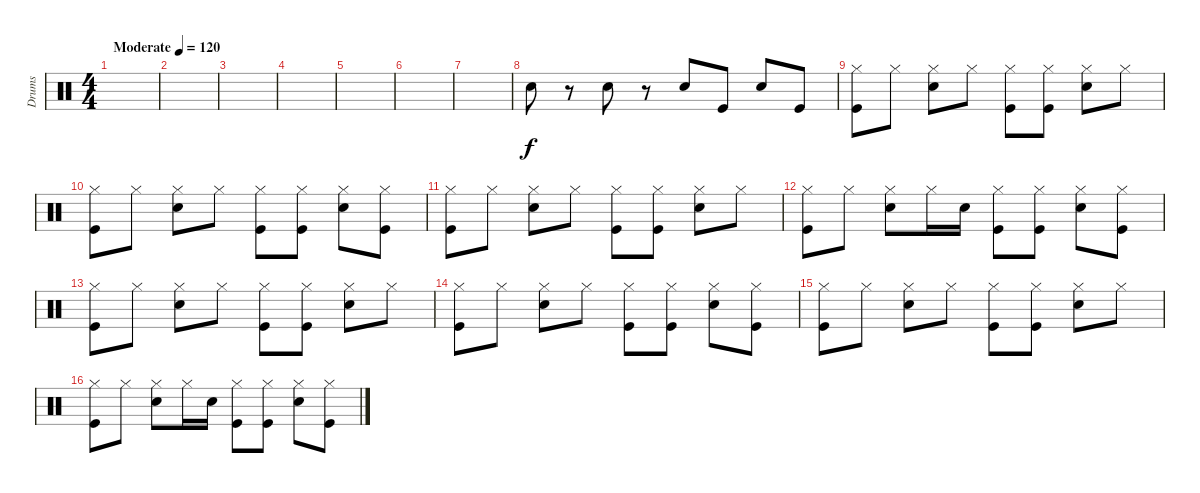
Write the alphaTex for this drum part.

\track ("Drums" "Drums") {instrument percussion}
\staff {score}
\articulation defaults
\ts (4 4)
\tempo (120 "Moderate")
\clef neutral
\ks c
|
|
|
|
|
|
|
"Snare (hit) 2".8 r.8 "Snare (hit) 2".8 r.8 "Snare (hit) 2".8 "Kick (hit)".8 "Snare (hit) 2".8 "Kick (hit)".8 |
("Hi-Hat (closed)" "Kick (hit)").8 "Hi-Hat (closed)".8 ("Hi-Hat (closed)" "Snare (hit) 2").8 "Hi-Hat (closed)".8 ("Hi-Hat (closed)" "Kick (hit)").8 ("Hi-Hat (closed)" "Kick (hit)").8 ("Hi-Hat (closed)" "Snare (hit) 2").8 "Hi-Hat (closed)".8 |
("Hi-Hat (closed)" "Kick (hit)").8 "Hi-Hat (closed)".8 ("Hi-Hat (closed)" "Snare (hit) 2").8 "Hi-Hat (closed)".8 ("Hi-Hat (closed)" "Kick (hit)").8 ("Hi-Hat (closed)" "Kick (hit)").8 ("Hi-Hat (closed)" "Snare (hit) 2").8 ("Hi-Hat (closed)" "Kick (hit)").8 |
("Hi-Hat (closed)" "Kick (hit)").8 "Hi-Hat (closed)".8 ("Hi-Hat (closed)" "Snare (hit) 2").8 "Hi-Hat (closed)".8 ("Hi-Hat (closed)" "Kick (hit)").8 ("Hi-Hat (closed)" "Kick (hit)").8 ("Hi-Hat (closed)" "Snare (hit) 2").8 "Hi-Hat (closed)".8 |
("Hi-Hat (closed)" "Kick (hit)").8 "Hi-Hat (closed)".8 ("Hi-Hat (closed)" "Snare (hit) 2").8 "Hi-Hat (closed)".16 "Snare (hit) 2".16 ("Hi-Hat (closed)" "Kick (hit)").8 ("Hi-Hat (closed)" "Kick (hit)").8 ("Hi-Hat (closed)" "Snare (hit) 2").8 ("Hi-Hat (closed)" "Kick (hit)").8 |
("Hi-Hat (closed)" "Kick (hit)").8 "Hi-Hat (closed)".8 ("Hi-Hat (closed)" "Snare (hit) 2").8 "Hi-Hat (closed)".8 ("Hi-Hat (closed)" "Kick (hit)").8 ("Hi-Hat (closed)" "Kick (hit)").8 ("Hi-Hat (closed)" "Snare (hit) 2").8 "Hi-Hat (closed)".8 |
("Hi-Hat (closed)" "Kick (hit)").8 "Hi-Hat (closed)".8 ("Hi-Hat (closed)" "Snare (hit) 2").8 "Hi-Hat (closed)".8 ("Hi-Hat (closed)" "Kick (hit)").8 ("Hi-Hat (closed)" "Kick (hit)").8 ("Hi-Hat (closed)" "Snare (hit) 2").8 ("Hi-Hat (closed)" "Kick (hit)").8 |
("Hi-Hat (closed)" "Kick (hit)").8 "Hi-Hat (closed)".8 ("Hi-Hat (closed)" "Snare (hit) 2").8 "Hi-Hat (closed)".8 ("Hi-Hat (closed)" "Kick (hit)").8 ("Hi-Hat (closed)" "Kick (hit)").8 ("Hi-Hat (closed)" "Snare (hit) 2").8 "Hi-Hat (closed)".8 |
("Hi-Hat (closed)" "Kick (hit)").8 "Hi-Hat (closed)".8 ("Hi-Hat (closed)" "Snare (hit) 2").8 "Hi-Hat (closed)".16 "Snare (hit) 2".16 ("Hi-Hat (closed)" "Kick (hit)").8 ("Hi-Hat (closed)" "Kick (hit)").8 ("Hi-Hat (closed)" "Snare (hit) 2").8 ("Hi-Hat (closed)" "Kick (hit)").8
